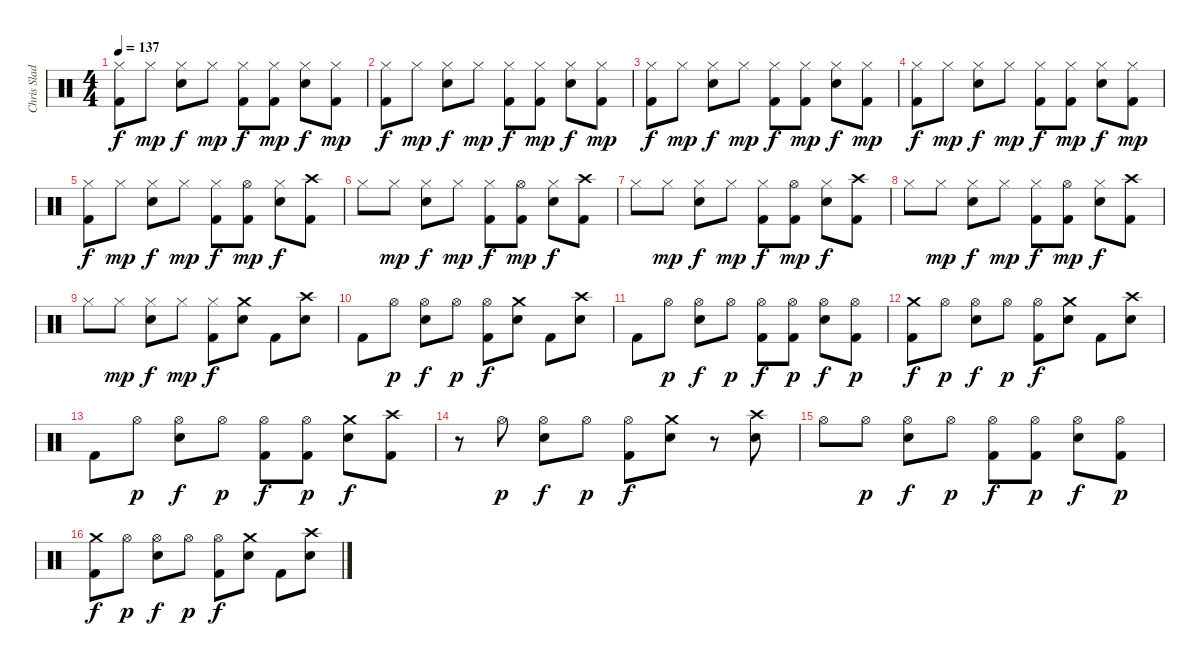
\track ("Chris Slade / Drums" "Chris Slad") {instrument percussion}
\staff {score}
\articulation defaults
\ts (4 4)
\tempo 137
\clef neutral
\ks c
("Hi-Hat (closed)" "Kick (hit) 2").8{dy f} "Hi-Hat (closed)".8{dy mp} ("Hi-Hat (closed)" "Electric Snare (hit)").8{dy f} "Hi-Hat (closed)".8{dy mp} ("Hi-Hat (closed)" "Kick (hit) 2").8{dy f} ("Hi-Hat (closed)" "Kick (hit) 2").8{dy mp} ("Hi-Hat (closed)" "Electric Snare (hit)").8{dy f} ("Hi-Hat (closed)" "Kick (hit) 2").8{dy mp} |
("Hi-Hat (closed)" "Kick (hit) 2").8{dy f} "Hi-Hat (closed)".8{dy mp} ("Hi-Hat (closed)" "Electric Snare (hit)").8{dy f} "Hi-Hat (closed)".8{dy mp} ("Hi-Hat (closed)" "Kick (hit) 2").8{dy f} ("Hi-Hat (closed)" "Kick (hit) 2").8{dy mp} ("Hi-Hat (closed)" "Electric Snare (hit)").8{dy f} ("Hi-Hat (closed)" "Kick (hit) 2").8{dy mp} |
("Hi-Hat (closed)" "Kick (hit) 2").8{dy f} "Hi-Hat (closed)".8{dy mp} ("Hi-Hat (closed)" "Electric Snare (hit)").8{dy f} "Hi-Hat (closed)".8{dy mp} ("Hi-Hat (closed)" "Kick (hit) 2").8{dy f} ("Hi-Hat (closed)" "Kick (hit) 2").8{dy mp} ("Hi-Hat (closed)" "Electric Snare (hit)").8{dy f} ("Hi-Hat (closed)" "Kick (hit) 2").8{dy mp} |
("Hi-Hat (closed)" "Kick (hit) 2").8{dy f} "Hi-Hat (closed)".8{dy mp} ("Hi-Hat (closed)" "Electric Snare (hit)").8{dy f} "Hi-Hat (closed)".8{dy mp} ("Hi-Hat (closed)" "Kick (hit) 2").8{dy f} ("Hi-Hat (closed)" "Kick (hit) 2").8{dy mp} ("Hi-Hat (closed)" "Electric Snare (hit)").8{dy f} ("Hi-Hat (closed)" "Kick (hit) 2").8{dy mp} |
("Hi-Hat (closed)" "Kick (hit) 2").8{dy f} "Hi-Hat (closed)".8{dy mp} ("Hi-Hat (closed)" "Electric Snare (hit)").8{dy f} "Hi-Hat (closed)".8{dy mp} ("Hi-Hat (closed)" "Kick (hit) 2").8{dy f} ("Hi-Hat (open)" "Kick (hit) 2").8{dy mp} ("Hi-Hat (closed)" "Electric Snare (hit)").8{dy f} ("Crash high (hit)" "Kick (hit) 2").8 |
"Hi-Hat (closed)".8 "Hi-Hat (closed)".8{dy mp} ("Hi-Hat (closed)" "Electric Snare (hit)").8{dy f} "Hi-Hat (closed)".8{dy mp} ("Hi-Hat (closed)" "Kick (hit) 2").8{dy f} ("Hi-Hat (open)" "Kick (hit) 2").8{dy mp} ("Hi-Hat (closed)" "Electric Snare (hit)").8{dy f} ("Crash high (hit)" "Kick (hit) 2").8 |
"Hi-Hat (closed)".8 "Hi-Hat (closed)".8{dy mp} ("Hi-Hat (closed)" "Electric Snare (hit)").8{dy f} "Hi-Hat (closed)".8{dy mp} ("Hi-Hat (closed)" "Kick (hit) 2").8{dy f} ("Hi-Hat (open)" "Kick (hit) 2").8{dy mp} ("Hi-Hat (closed)" "Electric Snare (hit)").8{dy f} ("Crash high (hit)" "Kick (hit) 2").8 |
"Hi-Hat (closed)".8 "Hi-Hat (closed)".8{dy mp} ("Hi-Hat (closed)" "Electric Snare (hit)").8{dy f} "Hi-Hat (closed)".8{dy mp} ("Hi-Hat (closed)" "Kick (hit) 2").8{dy f} ("Hi-Hat (open)" "Kick (hit) 2").8{dy mp} ("Hi-Hat (closed)" "Electric Snare (hit)").8{dy f} ("Crash high (hit)" "Kick (hit) 2").8 |
"Hi-Hat (closed)".8 "Hi-Hat (closed)".8{dy mp} ("Hi-Hat (closed)" "Electric Snare (hit)").8{dy f} "Hi-Hat (closed)".8{dy mp} ("Hi-Hat (closed)" "Kick (hit) 2").8{dy f} ("Crash medium (hit)" "Electric Snare (hit)").8 "Kick (hit) 2".8 ("Crash high (hit)" "Electric Snare (hit)").8 |
"Kick (hit) 2".8 "Hi-Hat (open)".8{dy p} ("Hi-Hat (open)" "Electric Snare (hit)").8{dy f} "Hi-Hat (open)".8{dy p} ("Hi-Hat (open)" "Kick (hit) 2").8{dy f} ("Crash medium (hit)" "Electric Snare (hit)").8 "Kick (hit) 2".8 ("Crash high (hit)" "Electric Snare (hit)").8 |
"Kick (hit) 2".8 "Hi-Hat (open)".8{dy p} ("Hi-Hat (open)" "Electric Snare (hit)").8{dy f} "Hi-Hat (open)".8{dy p} ("Hi-Hat (open)" "Kick (hit) 2").8{dy f} ("Hi-Hat (open)" "Kick (hit) 2").8{dy p} ("Hi-Hat (open)" "Electric Snare (hit)").8{dy f} ("Hi-Hat (open)" "Kick (hit) 2").8{dy p} |
("Crash medium (hit)" "Kick (hit) 2").8{dy f} "Hi-Hat (open)".8{dy p} ("Hi-Hat (open)" "Electric Snare (hit)").8{dy f} "Hi-Hat (open)".8{dy p} ("Hi-Hat (open)" "Kick (hit) 2").8{dy f} ("Crash medium (hit)" "Electric Snare (hit)").8 "Kick (hit) 2".8 ("Crash high (hit)" "Electric Snare (hit)").8 |
"Kick (hit) 2".8 "Hi-Hat (open)".8{dy p} ("Hi-Hat (open)" "Electric Snare (hit)").8{dy f} "Hi-Hat (open)".8{dy p} ("Kick (hit) 2" "Hi-Hat (open)").8{dy f} ("Hi-Hat (open)" "Kick (hit) 2").8{dy p} ("Crash medium (hit)" "Electric Snare (hit)").8{dy f} ("Crash high (hit)" "Kick (hit) 2").8 |
r.8 "Hi-Hat (open)".8{dy p} ("Hi-Hat (open)" "Electric Snare (hit)").8{dy f} "Hi-Hat (open)".8{dy p} ("Hi-Hat (open)" "Kick (hit) 2").8{dy f} ("Crash medium (hit)" "Electric Snare (hit)").8 r.8 ("Crash high (hit)" "Electric Snare (hit)").8 |
"Hi-Hat (open)".8 "Hi-Hat (open)".8{dy p} ("Hi-Hat (open)" "Electric Snare (hit)").8{dy f} "Hi-Hat (open)".8{dy p} ("Hi-Hat (open)" "Kick (hit) 2").8{dy f} ("Hi-Hat (open)" "Kick (hit) 2").8{dy p} ("Hi-Hat (open)" "Electric Snare (hit)").8{dy f} ("Hi-Hat (open)" "Kick (hit) 2").8{dy p} |
("Crash medium (hit)" "Kick (hit) 2").8{dy f} "Hi-Hat (open)".8{dy p} ("Hi-Hat (open)" "Electric Snare (hit)").8{dy f} "Hi-Hat (open)".8{dy p} ("Hi-Hat (open)" "Kick (hit) 2").8{dy f} ("Crash medium (hit)" "Electric Snare (hit)").8 "Kick (hit) 2".8 ("Crash high (hit)" "Electric Snare (hit)").8
